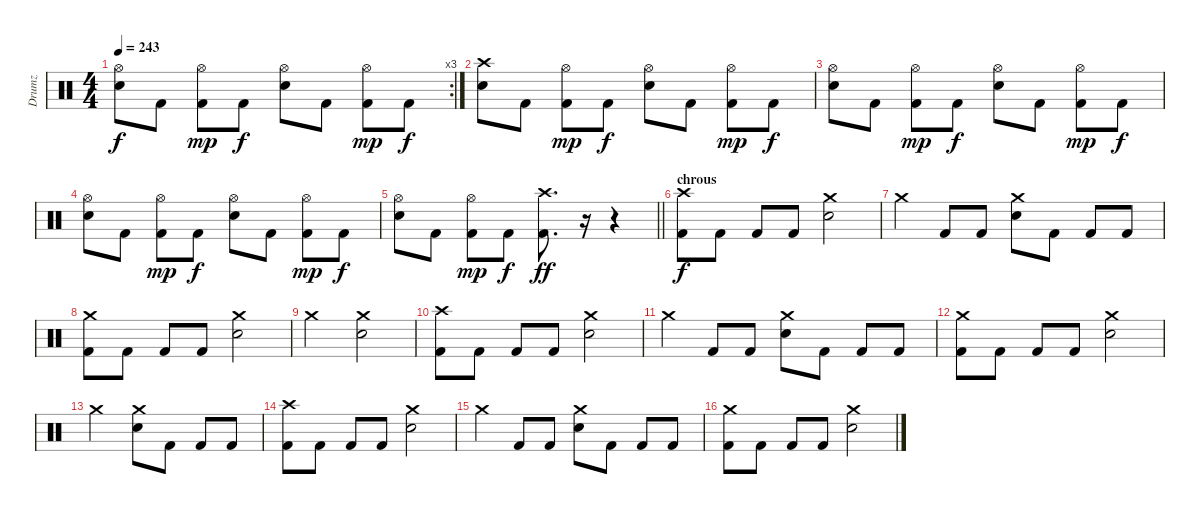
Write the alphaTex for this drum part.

\track ("Drumz" "Drumz") {instrument percussion}
\staff {score}
\articulation defaults
\rc 3
\ts (4 4)
\tempo 243
\clef neutral
\ks c
("Hi-Hat (open)" "Electric Snare (hit)").8{dy f} "Kick (hit) 2".8 ("Hi-Hat (open)" "Kick (hit) 2").8{dy mp} "Kick (hit) 2".8{dy f} ("Hi-Hat (open)" "Electric Snare (hit)").8 "Kick (hit) 2".8 ("Hi-Hat (open)" "Kick (hit) 2").8{dy mp} "Kick (hit) 2".8{dy f} |
("Crash high (hit)" "Electric Snare (hit)").8 "Kick (hit) 2".8 ("Hi-Hat (open)" "Kick (hit) 2").8{dy mp} "Kick (hit) 2".8{dy f} ("Hi-Hat (open)" "Electric Snare (hit)").8 "Kick (hit) 2".8 ("Hi-Hat (open)" "Kick (hit) 2").8{dy mp} "Kick (hit) 2".8{dy f} |
("Hi-Hat (open)" "Electric Snare (hit)").8 "Kick (hit) 2".8 ("Hi-Hat (open)" "Kick (hit) 2").8{dy mp} "Kick (hit) 2".8{dy f} ("Hi-Hat (open)" "Electric Snare (hit)").8 "Kick (hit) 2".8 ("Hi-Hat (open)" "Kick (hit) 2").8{dy mp} "Kick (hit) 2".8{dy f} |
("Hi-Hat (open)" "Electric Snare (hit)").8 "Kick (hit) 2".8 ("Hi-Hat (open)" "Kick (hit) 2").8{dy mp} "Kick (hit) 2".8{dy f} ("Hi-Hat (open)" "Electric Snare (hit)").8 "Kick (hit) 2".8 ("Hi-Hat (open)" "Kick (hit) 2").8{dy mp} "Kick (hit) 2".8{dy f} |
\barLineRight lightlight
("Hi-Hat (open)" "Electric Snare (hit)").8 "Kick (hit) 2".8 ("Hi-Hat (open)" "Kick (hit) 2").8{dy mp} "Kick (hit) 2".8{dy f} ("Crash high (hit)" "Kick (hit) 2").8{d dy ff} r.16{volume 0} r.4 |
\section ("" "chrous")
("Crash high (hit)" "Kick (hit) 2").8{dy f volume 16} "Kick (hit) 2".8 "Kick (hit) 2".8 "Kick (hit) 2".8 ("Crash medium (hit)" "Electric Snare (hit)").2 |
"Crash medium (hit)".4 "Kick (hit) 2".8 "Kick (hit) 2".8 ("Crash medium (hit)" "Electric Snare (hit)").8 "Kick (hit) 2".8 "Kick (hit) 2".8 "Kick (hit) 2".8 |
("Crash medium (hit)" "Kick (hit) 2").8 "Kick (hit) 2".8 "Kick (hit) 2".8 "Kick (hit) 2".8 ("Crash medium (hit)" "Electric Snare (hit)").2 |
"Crash medium (hit)".2 ("Crash medium (hit)" "Electric Snare (hit)").2 |
("Crash high (hit)" "Kick (hit) 2").8 "Kick (hit) 2".8 "Kick (hit) 2".8 "Kick (hit) 2".8 ("Crash medium (hit)" "Electric Snare (hit)").2 |
"Crash medium (hit)".4 "Kick (hit) 2".8 "Kick (hit) 2".8 ("Crash medium (hit)" "Electric Snare (hit)").8 "Kick (hit) 2".8 "Kick (hit) 2".8 "Kick (hit) 2".8 |
("Crash medium (hit)" "Kick (hit) 2").8 "Kick (hit) 2".8 "Kick (hit) 2".8 "Kick (hit) 2".8 ("Crash medium (hit)" "Electric Snare (hit)").2 |
"Crash medium (hit)".2 ("Crash medium (hit)" "Electric Snare (hit)").8 "Kick (hit) 2".8 "Kick (hit) 2".8 "Kick (hit) 2".8 |
("Crash high (hit)" "Kick (hit) 2").8 "Kick (hit) 2".8 "Kick (hit) 2".8 "Kick (hit) 2".8 ("Crash medium (hit)" "Electric Snare (hit)").2 |
"Crash medium (hit)".4 "Kick (hit) 2".8 "Kick (hit) 2".8 ("Crash medium (hit)" "Electric Snare (hit)").8 "Kick (hit) 2".8 "Kick (hit) 2".8 "Kick (hit) 2".8 |
("Crash medium (hit)" "Kick (hit) 2").8 "Kick (hit) 2".8 "Kick (hit) 2".8 "Kick (hit) 2".8 ("Crash medium (hit)" "Electric Snare (hit)").2
